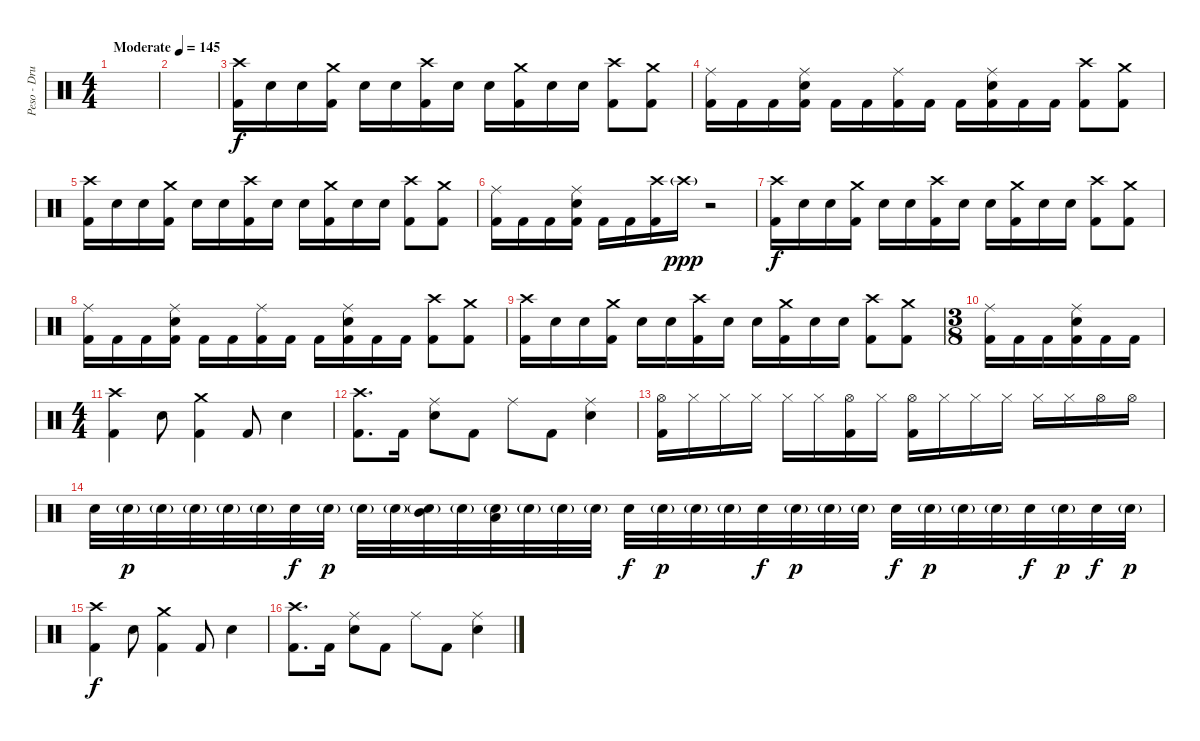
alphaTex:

\track ("Peso - Drums" "Peso - Dru") {instrument percussion}
\staff {score}
\articulation defaults
\ts (4 4)
\tempo (145 "Moderate")
\clef neutral
\ks c
|
|
("Crash high (hit)" "Kick (hit) 2").16 "Electric Snare (hit)".16 "Electric Snare (hit)".16 ("Crash medium (hit)" "Kick (hit) 2").16 "Electric Snare (hit)".16 "Electric Snare (hit)".16 ("Crash high (hit)" "Kick (hit) 2").16 "Electric Snare (hit)".16 "Electric Snare (hit)".16 ("Crash medium (hit)" "Kick (hit) 2").16 "Electric Snare (hit)".16 "Electric Snare (hit)".16 ("Crash high (hit)" "Kick (hit) 2").8 ("Crash medium (hit)" "Kick (hit) 2").8 |
("Ride (middle)" "Kick (hit) 2").16 "Kick (hit) 2".16 "Kick (hit) 2".16 ("Ride (middle)" "Electric Snare (hit)" "Kick (hit) 2").16 "Kick (hit) 2".16 "Kick (hit) 2".16 ("Ride (middle)" "Kick (hit) 2").16 "Kick (hit) 2".16 "Kick (hit) 2".16 ("Ride (middle)" "Electric Snare (hit)" "Kick (hit) 2").16 "Kick (hit) 2".16 "Kick (hit) 2".16 ("Crash high (hit)" "Kick (hit) 2").8 ("Crash medium (hit)" "Kick (hit) 2").8 |
("Crash high (hit)" "Kick (hit) 2").16 "Electric Snare (hit)".16 "Electric Snare (hit)".16 ("Crash medium (hit)" "Kick (hit) 2").16 "Electric Snare (hit)".16 "Electric Snare (hit)".16 ("Crash high (hit)" "Kick (hit) 2").16 "Electric Snare (hit)".16 "Electric Snare (hit)".16 ("Crash medium (hit)" "Kick (hit) 2").16 "Electric Snare (hit)".16 "Electric Snare (hit)".16 ("Crash high (hit)" "Kick (hit) 2").8 ("Crash medium (hit)" "Kick (hit) 2").8 |
("Ride (middle)" "Kick (hit) 2").16 "Kick (hit) 2".16 "Kick (hit) 2".16 ("Ride (middle)" "Electric Snare (hit)" "Kick (hit) 2").16 "Kick (hit) 2".16 "Kick (hit) 2".16 ("Crash high (hit)" "Kick (hit) 2").16 "Crash high (hit)"{g}.16{dy ppp} r.2 |
("Crash high (hit)" "Kick (hit) 2").16{dy f} "Electric Snare (hit)".16 "Electric Snare (hit)".16 ("Crash medium (hit)" "Kick (hit) 2").16 "Electric Snare (hit)".16 "Electric Snare (hit)".16 ("Crash high (hit)" "Kick (hit) 2").16 "Electric Snare (hit)".16 "Electric Snare (hit)".16 ("Crash medium (hit)" "Kick (hit) 2").16 "Electric Snare (hit)".16 "Electric Snare (hit)".16 ("Crash high (hit)" "Kick (hit) 2").8 ("Crash medium (hit)" "Kick (hit) 2").8 |
("Ride (middle)" "Kick (hit) 2").16 "Kick (hit) 2".16 "Kick (hit) 2".16 ("Ride (middle)" "Electric Snare (hit)" "Kick (hit) 2").16 "Kick (hit) 2".16 "Kick (hit) 2".16 ("Ride (middle)" "Kick (hit) 2").16 "Kick (hit) 2".16 "Kick (hit) 2".16 ("Ride (middle)" "Electric Snare (hit)" "Kick (hit) 2").16 "Kick (hit) 2".16 "Kick (hit) 2".16 ("Crash high (hit)" "Kick (hit) 2").8 ("Crash medium (hit)" "Kick (hit) 2").8 |
("Crash high (hit)" "Kick (hit) 2").16 "Electric Snare (hit)".16 "Electric Snare (hit)".16 ("Crash medium (hit)" "Kick (hit) 2").16 "Electric Snare (hit)".16 "Electric Snare (hit)".16 ("Crash high (hit)" "Kick (hit) 2").16 "Electric Snare (hit)".16 "Electric Snare (hit)".16 ("Crash medium (hit)" "Kick (hit) 2").16 "Electric Snare (hit)".16 "Electric Snare (hit)".16 ("Crash high (hit)" "Kick (hit) 2").8 ("Crash medium (hit)" "Kick (hit) 2").8 |
\ts (3 8)
("Ride (middle)" "Kick (hit) 2").16 "Kick (hit) 2".16 "Kick (hit) 2".16 ("Ride (middle)" "Electric Snare (hit)" "Kick (hit) 2").16 "Kick (hit) 2".16 "Kick (hit) 2".16 |
\ts (4 4)
("Crash high (hit)" "Kick (hit) 2").4 "Electric Snare (hit)".8 ("Crash medium (hit)" "Kick (hit) 2").4 "Kick (hit) 2".8 "Electric Snare (hit)".4 |
("Crash high (hit)" "Kick (hit) 2").8{d} "Kick (hit) 2".16 ("Ride (middle)" "Electric Snare (hit)").8 "Kick (hit) 2".8 "Ride (middle)".8 "Kick (hit) 2".8 ("Ride (middle)" "Electric Snare (hit)").4 |
("Hi-Hat (open)" "Kick (hit) 2").16 "Hi-Hat (closed)".16 "Hi-Hat (closed)".16 "Hi-Hat (closed)".16 "Hi-Hat (closed)".16 "Hi-Hat (closed)".16 ("Hi-Hat (open)" "Kick (hit) 2").16 "Hi-Hat (closed)".16 ("Hi-Hat (open)" "Kick (hit) 2").16 "Hi-Hat (closed)".16 "Hi-Hat (closed)".16 "Hi-Hat (closed)".16 "Hi-Hat (closed)".16 "Hi-Hat (closed)".16 "Hi-Hat (open)".16 "Hi-Hat (open)".16 |
"Electric Snare (hit)".32 "Electric Snare (hit)"{g}.32{dy p} "Electric Snare (hit)"{g}.32 "Electric Snare (hit)"{g}.32 "Electric Snare (hit)"{g}.32 "Electric Snare (hit)"{g}.32 "Electric Snare (hit)".32{dy f} "Electric Snare (hit)"{g}.32{dy p} "Electric Snare (hit)"{g}.32 "Electric Snare (hit)"{g}.32 ("Mid Tom (hit)" "Electric Snare (hit)"{g}).32 "Electric Snare (hit)"{g}.32 ("Low Tom (hit)" "Electric Snare (hit)"{g}).32 "Electric Snare (hit)"{g}.32 "Electric Snare (hit)"{g}.32 "Electric Snare (hit)"{g}.32 "Electric Snare (hit)".32{dy f} "Electric Snare (hit)"{g}.32{dy p} "Electric Snare (hit)"{g}.32 "Electric Snare (hit)"{g}.32 "Electric Snare (hit)".32{dy f} "Electric Snare (hit)"{g}.32{dy p} "Electric Snare (hit)"{g}.32 "Electric Snare (hit)"{g}.32 "Electric Snare (hit)".32{dy f} "Electric Snare (hit)"{g}.32{dy p} "Electric Snare (hit)"{g}.32 "Electric Snare (hit)"{g}.32 "Electric Snare (hit)".32{dy f} "Electric Snare (hit)"{g}.32{dy p} "Electric Snare (hit)".32{dy f} "Electric Snare (hit)"{g}.32{dy p} |
("Crash high (hit)" "Kick (hit) 2").4{dy f} "Electric Snare (hit)".8 ("Crash medium (hit)" "Kick (hit) 2").4 "Kick (hit) 2".8 "Electric Snare (hit)".4 |
("Crash high (hit)" "Kick (hit) 2").8{d} "Kick (hit) 2".16 ("Ride (middle)" "Electric Snare (hit)").8 "Kick (hit) 2".8 "Ride (middle)".8 "Kick (hit) 2".8 ("Ride (middle)" "Electric Snare (hit)").4
